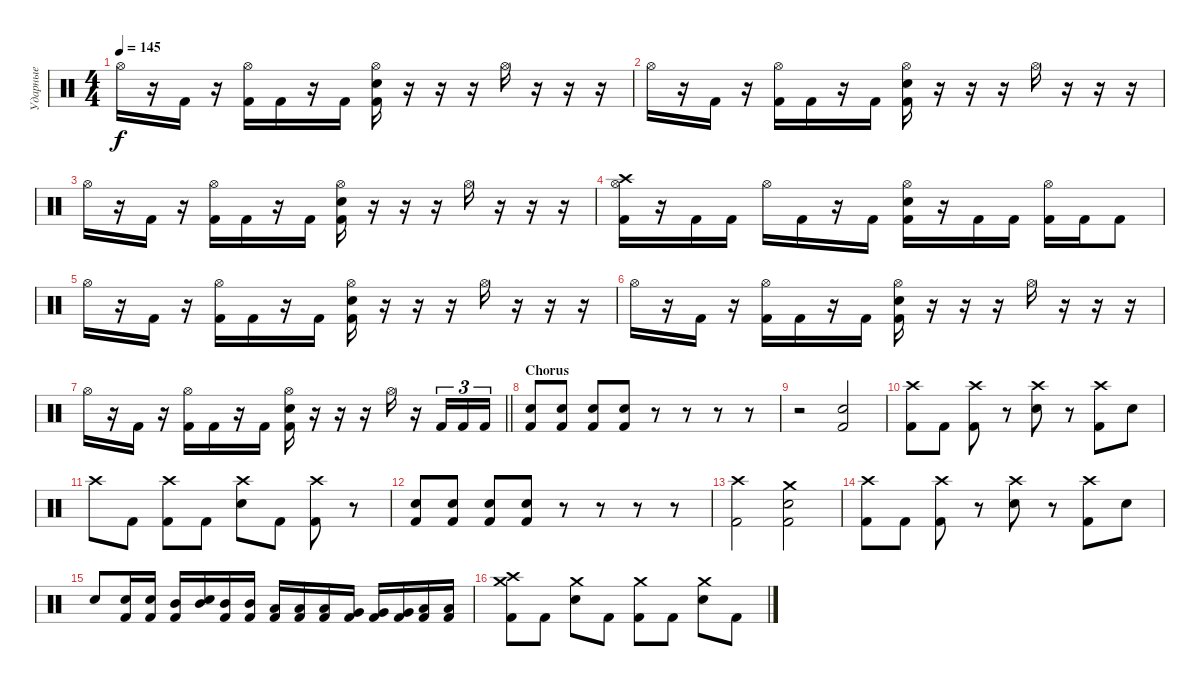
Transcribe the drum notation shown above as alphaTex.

\track ("Ударные" "Ударные") {instrument percussion}
\staff {score}
\articulation defaults
\ts (4 4)
\tempo 145
\clef neutral
\ks c "Hi-Hat (open)".16{dy f}
r.16 "Kick (hit) 2".16 r.16 ("Hi-Hat (open)" "Kick (hit) 2").16 "Kick (hit) 2".16 r.16 "Kick (hit) 2".16 ("Hi-Hat (open)" "Snare (hit) 2" "Kick (hit) 2").16 r.16 r.16 r.16 "Hi-Hat (open)".16 r.16 r.16 r.16 |
"Hi-Hat (open)".16 r.16 "Kick (hit) 2".16 r.16 ("Hi-Hat (open)" "Kick (hit) 2").16 "Kick (hit) 2".16 r.16 "Kick (hit) 2".16 ("Hi-Hat (open)" "Snare (hit) 2" "Kick (hit) 2").16 r.16 r.16 r.16 "Hi-Hat (open)".16 r.16 r.16 r.16 |
"Hi-Hat (open)".16 r.16 "Kick (hit) 2".16 r.16 ("Hi-Hat (open)" "Kick (hit) 2").16 "Kick (hit) 2".16 r.16 "Kick (hit) 2".16 ("Hi-Hat (open)" "Snare (hit) 2" "Kick (hit) 2").16 r.16 r.16 r.16 "Hi-Hat (open)".16 r.16 r.16 r.16 |
("Hi-Hat (open)" "Crash high (hit)" "Kick (hit) 2").16 r.16 "Kick (hit) 2".16 "Kick (hit) 2".16 "Hi-Hat (open)".16 "Kick (hit) 2".16 r.16 "Kick (hit) 2".16 ("Hi-Hat (open)" "Snare (hit) 2" "Kick (hit) 2").16 r.16 "Kick (hit) 2".16 "Kick (hit) 2".16 ("Hi-Hat (open)" "Kick (hit) 2").16 "Kick (hit) 2".16 "Kick (hit) 2".8 |
"Hi-Hat (open)".16 r.16 "Kick (hit) 2".16 r.16 ("Hi-Hat (open)" "Kick (hit) 2").16 "Kick (hit) 2".16 r.16 "Kick (hit) 2".16 ("Hi-Hat (open)" "Snare (hit) 2" "Kick (hit) 2").16 r.16 r.16 r.16 "Hi-Hat (open)".16 r.16 r.16 r.16 |
"Hi-Hat (open)".16 r.16 "Kick (hit) 2".16 r.16 ("Hi-Hat (open)" "Kick (hit) 2").16 "Kick (hit) 2".16 r.16 "Kick (hit) 2".16 ("Hi-Hat (open)" "Snare (hit) 2" "Kick (hit) 2").16 r.16 r.16 r.16 "Hi-Hat (open)".16 r.16 r.16 r.16 |
\barLineRight lightlight "Hi-Hat (open)".16
r.16 "Kick (hit) 2".16 r.16 ("Hi-Hat (open)" "Kick (hit) 2").16 "Kick (hit) 2".16 r.16 "Kick (hit) 2".16 ("Hi-Hat (open)" "Snare (hit) 2" "Kick (hit) 2").16 r.16 r.16 r.16 "Hi-Hat (open)".16 r.16 "Kick (hit) 2".16{tu (3 2)} "Kick (hit) 2".16{tu (3 2)} "Kick (hit) 2".16{tu (3 2)} |
\section ("" "Chorus")
("Kick (hit) 2" "Snare (hit) 2").8 ("Kick (hit) 2" "Snare (hit) 2").8 ("Kick (hit) 2" "Snare (hit) 2").8 ("Kick (hit) 2" "Snare (hit) 2").8 r.8 r.8 r.8 r.8 |
r.2 ("Kick (hit) 2" "Snare (hit) 2").2 |
("Crash high (hit)" "Kick (hit) 2").8 "Kick (hit) 2".8 ("Crash high (hit)" "Kick (hit) 2").8 r.8 ("Crash high (hit)" "Snare (hit) 2").8 r.8 ("Crash high (hit)" "Kick (hit) 2").8 "Snare (hit) 2".8 |
"Crash high (hit)".8 "Kick (hit) 2".8 ("Crash high (hit)" "Kick (hit) 2").8 "Kick (hit) 2".8 ("Crash high (hit)" "Snare (hit) 2").8 "Kick (hit) 2".8 ("Crash high (hit)" "Kick (hit) 2").8 r.8 |
("Kick (hit) 2" "Snare (hit) 2").8 ("Kick (hit) 2" "Snare (hit) 2").8 ("Kick (hit) 2" "Snare (hit) 2").8 ("Kick (hit) 2" "Snare (hit) 2").8 r.8 r.8 r.8 r.8 |
("Crash high (hit)" "Kick (hit) 2").2 ("Crash medium (hit)" "Kick (hit) 2" "Snare (hit) 2").2 |
("Crash high (hit)" "Kick (hit) 2").8 "Kick (hit) 2".8 ("Crash high (hit)" "Kick (hit) 2").8 r.8 ("Crash high (hit)" "Snare (hit) 2").8 r.8 ("Crash high (hit)" "Kick (hit) 2").8 "Snare (hit) 2".8 |
"Snare (hit) 2".8 ("Snare (hit) 2" "Kick (hit) 2").16 ("Snare (hit) 2" "Kick (hit) 2").16 ("Mid Tom (hit)" "Kick (hit) 2").16 ("Mid Tom (hit)" "Snare (hit) 2").16 ("Mid Tom (hit)" "Kick (hit) 2").16 ("Mid Tom (hit)" "Kick (hit) 2").16 ("Low Tom (hit)" "Kick (hit) 2").16 ("Low Tom (hit)" "Kick (hit) 2").16 ("Low Tom (hit)" "Kick (hit) 2").16 ("Very Low Tom (hit)" "Kick (hit) 2").16 ("Very Low Tom (hit)" "Kick (hit) 2").16 ("Very Low Tom (hit)" "Kick (hit) 2").16 ("Low Floor Tom (hit)" "Kick (hit) 2").16 ("Low Floor Tom (hit)" "Kick (hit) 2").16 |
("Crash high (hit)" "Crash medium (hit)" "Kick (hit) 2").8 "Kick (hit) 2".8 ("Crash medium (hit)" "Snare (hit) 2").8 "Kick (hit) 2".8 ("Crash medium (hit)" "Kick (hit) 2").8 "Kick (hit) 2".8 ("Crash medium (hit)" "Snare (hit) 2").8 "Kick (hit) 2".8
